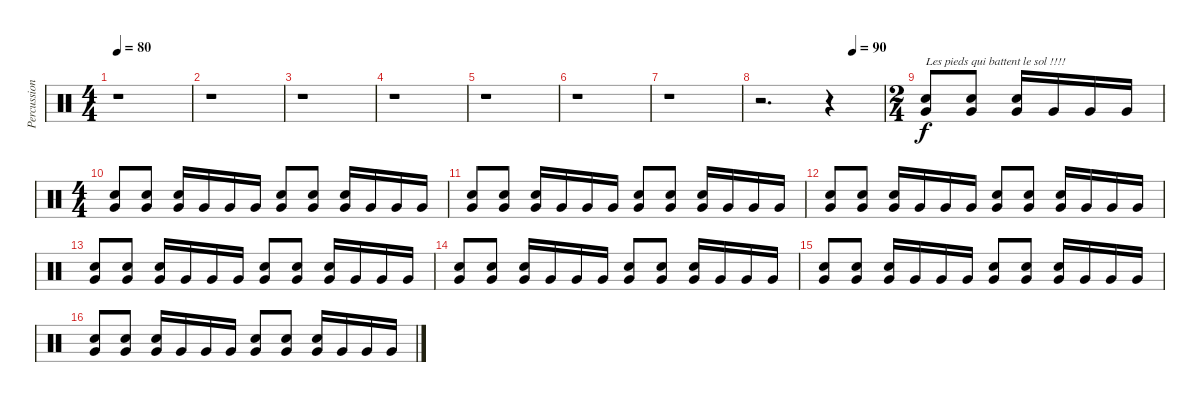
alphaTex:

\track ("Percussions" "Percussion") {instrument percussion}
\staff {score}
\articulation defaults
\ts (4 4)
\tempo 80
\clef neutral
\ks c
r.1{dy f} |
r.1 |
r.1 |
r.1 |
r.1 |
r.1 |
r.1 |
\tempo (90 0.75)
r.2{d} r.4 |
\ts (2 4)
("Hand Clap (hit)" "Very Low Tom (hit)").8{txt "Les pieds qui battent le sol !!!!"} ("Hand Clap (hit)" "Very Low Tom (hit)").8 ("Hand Clap (hit)" "Very Low Tom (hit)").16 "Very Low Tom (hit)".16 "Very Low Tom (hit)".16 "Very Low Tom (hit)".16 |
\ts (4 4)
("Hand Clap (hit)" "Very Low Tom (hit)").8 ("Hand Clap (hit)" "Very Low Tom (hit)").8 ("Hand Clap (hit)" "Very Low Tom (hit)").16 "Very Low Tom (hit)".16 "Very Low Tom (hit)".16 "Very Low Tom (hit)".16 ("Hand Clap (hit)" "Very Low Tom (hit)").8 ("Hand Clap (hit)" "Very Low Tom (hit)").8 ("Hand Clap (hit)" "Very Low Tom (hit)").16 "Very Low Tom (hit)".16 "Very Low Tom (hit)".16 "Very Low Tom (hit)".16 |
("Hand Clap (hit)" "Very Low Tom (hit)").8 ("Hand Clap (hit)" "Very Low Tom (hit)").8 ("Hand Clap (hit)" "Very Low Tom (hit)").16 "Very Low Tom (hit)".16 "Very Low Tom (hit)".16 "Very Low Tom (hit)".16 ("Hand Clap (hit)" "Very Low Tom (hit)").8 ("Hand Clap (hit)" "Very Low Tom (hit)").8 ("Hand Clap (hit)" "Very Low Tom (hit)").16 "Very Low Tom (hit)".16 "Very Low Tom (hit)".16 "Very Low Tom (hit)".16 |
("Hand Clap (hit)" "Very Low Tom (hit)").8 ("Hand Clap (hit)" "Very Low Tom (hit)").8 ("Hand Clap (hit)" "Very Low Tom (hit)").16 "Very Low Tom (hit)".16 "Very Low Tom (hit)".16 "Very Low Tom (hit)".16 ("Hand Clap (hit)" "Very Low Tom (hit)").8 ("Hand Clap (hit)" "Very Low Tom (hit)").8 ("Hand Clap (hit)" "Very Low Tom (hit)").16 "Very Low Tom (hit)".16 "Very Low Tom (hit)".16 "Very Low Tom (hit)".16 |
("Hand Clap (hit)" "Very Low Tom (hit)").8 ("Hand Clap (hit)" "Very Low Tom (hit)").8 ("Hand Clap (hit)" "Very Low Tom (hit)").16 "Very Low Tom (hit)".16 "Very Low Tom (hit)".16 "Very Low Tom (hit)".16 ("Hand Clap (hit)" "Very Low Tom (hit)").8 ("Hand Clap (hit)" "Very Low Tom (hit)").8 ("Hand Clap (hit)" "Very Low Tom (hit)").16 "Very Low Tom (hit)".16 "Very Low Tom (hit)".16 "Very Low Tom (hit)".16 |
("Hand Clap (hit)" "Very Low Tom (hit)").8 ("Hand Clap (hit)" "Very Low Tom (hit)").8 ("Hand Clap (hit)" "Very Low Tom (hit)").16 "Very Low Tom (hit)".16 "Very Low Tom (hit)".16 "Very Low Tom (hit)".16 ("Hand Clap (hit)" "Very Low Tom (hit)").8 ("Hand Clap (hit)" "Very Low Tom (hit)").8 ("Hand Clap (hit)" "Very Low Tom (hit)").16 "Very Low Tom (hit)".16 "Very Low Tom (hit)".16 "Very Low Tom (hit)".16 |
("Hand Clap (hit)" "Very Low Tom (hit)").8 ("Hand Clap (hit)" "Very Low Tom (hit)").8 ("Hand Clap (hit)" "Very Low Tom (hit)").16 "Very Low Tom (hit)".16 "Very Low Tom (hit)".16 "Very Low Tom (hit)".16 ("Hand Clap (hit)" "Very Low Tom (hit)").8 ("Hand Clap (hit)" "Very Low Tom (hit)").8 ("Hand Clap (hit)" "Very Low Tom (hit)").16 "Very Low Tom (hit)".16 "Very Low Tom (hit)".16 "Very Low Tom (hit)".16 |
("Hand Clap (hit)" "Very Low Tom (hit)").8 ("Hand Clap (hit)" "Very Low Tom (hit)").8 ("Hand Clap (hit)" "Very Low Tom (hit)").16 "Very Low Tom (hit)".16 "Very Low Tom (hit)".16 "Very Low Tom (hit)".16 ("Hand Clap (hit)" "Very Low Tom (hit)").8 ("Hand Clap (hit)" "Very Low Tom (hit)").8 ("Hand Clap (hit)" "Very Low Tom (hit)").16 "Very Low Tom (hit)".16 "Very Low Tom (hit)".16 "Very Low Tom (hit)".16
